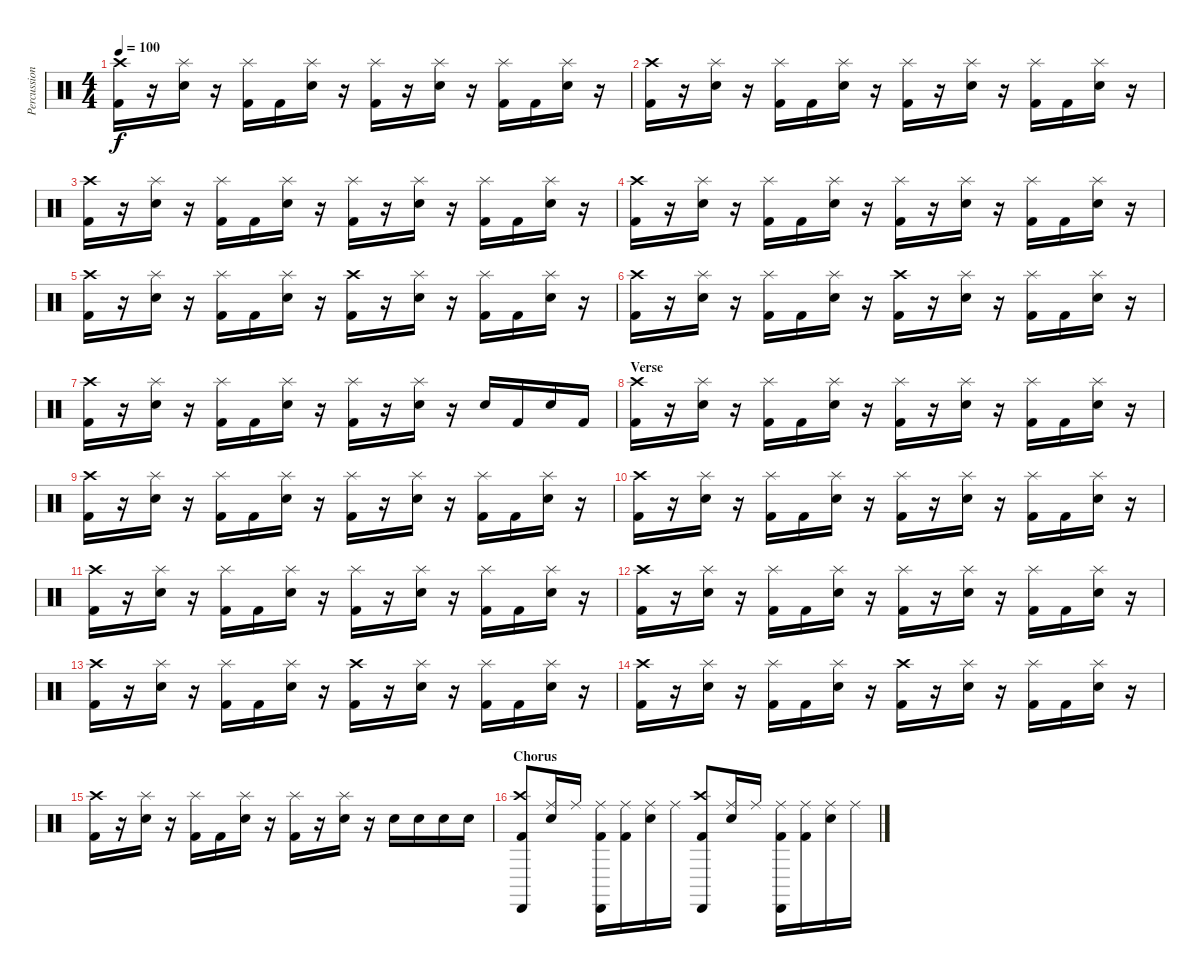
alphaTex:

\track ("Percussion" "Percussion") {instrument percussion}
\staff {score}
\articulation defaults
\ts (4 4)
\tempo 100
\clef neutral
\ks c
("Crash high (hit)" "Kick (hit) 2").16{dy f} r.16 ("Splash (hit)" "Snare (hit) 2").16 r.16 ("Splash (hit)" "Kick (hit) 2").16 "Kick (hit) 2".16 ("Splash (hit)" "Snare (hit) 2").16 r.16 ("Splash (hit)" "Kick (hit) 2").16 r.16 ("Splash (hit)" "Snare (hit) 2").16 r.16 ("Splash (hit)" "Kick (hit) 2").16 "Kick (hit) 2".16 ("Splash (hit)" "Snare (hit) 2").16 r.16 |
("Crash high (hit)" "Kick (hit) 2").16 r.16 ("Splash (hit)" "Snare (hit) 2").16 r.16 ("Splash (hit)" "Kick (hit) 2").16 "Kick (hit) 2".16 ("Splash (hit)" "Snare (hit) 2").16 r.16 ("Splash (hit)" "Kick (hit) 2").16 r.16 ("Splash (hit)" "Snare (hit) 2").16 r.16 ("Splash (hit)" "Kick (hit) 2").16 "Kick (hit) 2".16 ("Splash (hit)" "Snare (hit) 2").16 r.16 |
("Crash high (hit)" "Kick (hit) 2").16 r.16 ("Splash (hit)" "Snare (hit) 2").16 r.16 ("Splash (hit)" "Kick (hit) 2").16 "Kick (hit) 2".16 ("Splash (hit)" "Snare (hit) 2").16 r.16 ("Splash (hit)" "Kick (hit) 2").16 r.16 ("Splash (hit)" "Snare (hit) 2").16 r.16 ("Splash (hit)" "Kick (hit) 2").16 "Kick (hit) 2".16 ("Splash (hit)" "Snare (hit) 2").16 r.16 |
("Crash high (hit)" "Kick (hit) 2").16 r.16 ("Splash (hit)" "Snare (hit) 2").16 r.16 ("Splash (hit)" "Kick (hit) 2").16 "Kick (hit) 2".16 ("Splash (hit)" "Snare (hit) 2").16 r.16 ("Splash (hit)" "Kick (hit) 2").16 r.16 ("Splash (hit)" "Snare (hit) 2").16 r.16 ("Splash (hit)" "Kick (hit) 2").16 "Kick (hit) 2".16 ("Splash (hit)" "Snare (hit) 2").16 r.16 |
("Crash high (hit)" "Kick (hit) 2").16 r.16 ("Splash (hit)" "Snare (hit) 2").16 r.16 ("Splash (hit)" "Kick (hit) 2").16 "Kick (hit) 2".16 ("Splash (hit)" "Snare (hit) 2").16 r.16 ("Crash high (hit)" "Kick (hit) 2").16 r.16 ("Splash (hit)" "Snare (hit) 2").16 r.16 ("Splash (hit)" "Kick (hit) 2").16 "Kick (hit) 2".16 ("Splash (hit)" "Snare (hit) 2").16 r.16 |
("Crash high (hit)" "Kick (hit) 2").16 r.16 ("Splash (hit)" "Snare (hit) 2").16 r.16 ("Splash (hit)" "Kick (hit) 2").16 "Kick (hit) 2".16 ("Splash (hit)" "Snare (hit) 2").16 r.16 ("Crash high (hit)" "Kick (hit) 2").16 r.16 ("Splash (hit)" "Snare (hit) 2").16 r.16 ("Splash (hit)" "Kick (hit) 2").16 "Kick (hit) 2".16 ("Splash (hit)" "Snare (hit) 2").16 r.16 |
("Crash high (hit)" "Kick (hit) 2").16 r.16 ("Splash (hit)" "Snare (hit) 2").16 r.16 ("Splash (hit)" "Kick (hit) 2").16 "Kick (hit) 2".16 ("Splash (hit)" "Snare (hit) 2").16 r.16 ("Splash (hit)" "Kick (hit) 2").16 r.16 ("Splash (hit)" "Snare (hit) 2").16 r.16 "Snare (hit) 2".16 "Kick (hit) 2".16 "Snare (hit) 2".16 "Kick (hit) 2".16 |
\section ("" "Verse")
("Crash high (hit)" "Kick (hit) 2").16 r.16 ("Splash (hit)" "Snare (hit) 2").16 r.16 ("Splash (hit)" "Kick (hit) 2").16 "Kick (hit) 2".16 ("Splash (hit)" "Snare (hit) 2").16 r.16 ("Splash (hit)" "Kick (hit) 2").16 r.16 ("Splash (hit)" "Snare (hit) 2").16 r.16 ("Splash (hit)" "Kick (hit) 2").16 "Kick (hit) 2".16 ("Splash (hit)" "Snare (hit) 2").16 r.16 |
("Crash high (hit)" "Kick (hit) 2").16 r.16 ("Splash (hit)" "Snare (hit) 2").16 r.16 ("Splash (hit)" "Kick (hit) 2").16 "Kick (hit) 2".16 ("Splash (hit)" "Snare (hit) 2").16 r.16 ("Splash (hit)" "Kick (hit) 2").16 r.16 ("Splash (hit)" "Snare (hit) 2").16 r.16 ("Splash (hit)" "Kick (hit) 2").16 "Kick (hit) 2".16 ("Splash (hit)" "Snare (hit) 2").16 r.16 |
("Crash high (hit)" "Kick (hit) 2").16 r.16 ("Splash (hit)" "Snare (hit) 2").16 r.16 ("Splash (hit)" "Kick (hit) 2").16 "Kick (hit) 2".16 ("Splash (hit)" "Snare (hit) 2").16 r.16 ("Splash (hit)" "Kick (hit) 2").16 r.16 ("Splash (hit)" "Snare (hit) 2").16 r.16 ("Splash (hit)" "Kick (hit) 2").16 "Kick (hit) 2".16 ("Splash (hit)" "Snare (hit) 2").16 r.16 |
("Crash high (hit)" "Kick (hit) 2").16 r.16 ("Splash (hit)" "Snare (hit) 2").16 r.16 ("Splash (hit)" "Kick (hit) 2").16 "Kick (hit) 2".16 ("Splash (hit)" "Snare (hit) 2").16 r.16 ("Splash (hit)" "Kick (hit) 2").16 r.16 ("Splash (hit)" "Snare (hit) 2").16 r.16 ("Splash (hit)" "Kick (hit) 2").16 "Kick (hit) 2".16 ("Splash (hit)" "Snare (hit) 2").16 r.16 |
("Crash high (hit)" "Kick (hit) 2").16 r.16 ("Splash (hit)" "Snare (hit) 2").16 r.16 ("Splash (hit)" "Kick (hit) 2").16 "Kick (hit) 2".16 ("Splash (hit)" "Snare (hit) 2").16 r.16 ("Splash (hit)" "Kick (hit) 2").16 r.16 ("Splash (hit)" "Snare (hit) 2").16 r.16 ("Splash (hit)" "Kick (hit) 2").16 "Kick (hit) 2".16 ("Splash (hit)" "Snare (hit) 2").16 r.16 |
("Crash high (hit)" "Kick (hit) 2").16 r.16 ("Splash (hit)" "Snare (hit) 2").16 r.16 ("Splash (hit)" "Kick (hit) 2").16 "Kick (hit) 2".16 ("Splash (hit)" "Snare (hit) 2").16 r.16 ("Crash high (hit)" "Kick (hit) 2").16 r.16 ("Splash (hit)" "Snare (hit) 2").16 r.16 ("Splash (hit)" "Kick (hit) 2").16 "Kick (hit) 2".16 ("Splash (hit)" "Snare (hit) 2").16 r.16 |
("Crash high (hit)" "Kick (hit) 2").16 r.16 ("Splash (hit)" "Snare (hit) 2").16 r.16 ("Splash (hit)" "Kick (hit) 2").16 "Kick (hit) 2".16 ("Splash (hit)" "Snare (hit) 2").16 r.16 ("Crash high (hit)" "Kick (hit) 2").16 r.16 ("Splash (hit)" "Snare (hit) 2").16 r.16 ("Splash (hit)" "Kick (hit) 2").16 "Kick (hit) 2".16 ("Splash (hit)" "Snare (hit) 2").16 r.16 |
("Crash high (hit)" "Kick (hit) 2").16 r.16 ("Splash (hit)" "Snare (hit) 2").16 r.16 ("Splash (hit)" "Kick (hit) 2").16 "Kick (hit) 2".16 ("Splash (hit)" "Snare (hit) 2").16 r.16 ("Splash (hit)" "Kick (hit) 2").16 r.16 ("Splash (hit)" "Snare (hit) 2").16 r.16 "Snare (hit) 2".16 "Snare (hit) 2".16 "Snare (hit) 2".16 "Snare (hit) 2".16 |
\section ("" "Chorus")
("Crash high (hit)" "Cabasa (hit)" "Kick (hit) 2").8 ("Ride (middle)" "Snare (hit) 2").16 "Ride (middle)".16 ("Ride (middle)" "Cabasa (hit)" "Kick (hit) 2").16 ("Ride (middle)" "Kick (hit) 2").16 ("Ride (middle)" "Snare (hit) 2").16 "Ride (middle)".16 ("Crash high (hit)" "Cabasa (hit)" "Kick (hit) 2").8 ("Ride (middle)" "Snare (hit) 2").16 "Ride (middle)".16 ("Ride (middle)" "Cabasa (hit)" "Kick (hit) 2").16 ("Ride (middle)" "Kick (hit) 2").16 ("Ride (middle)" "Snare (hit) 2").16 "Ride (middle)".16
